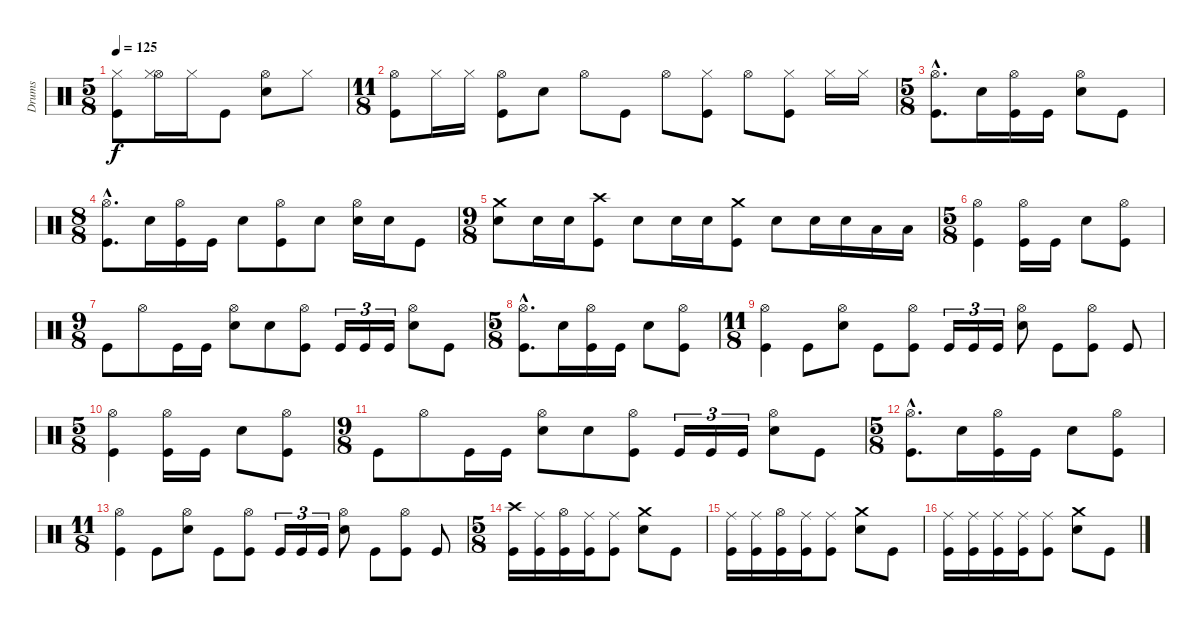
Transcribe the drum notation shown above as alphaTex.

\track ("Drums" "Drums") {instrument percussion}
\staff {score}
\articulation defaults
\ts (5 8)
\tempo 125
\clef neutral
\ks c
("Kick (hit)" "Hi-Hat (closed)").8{dy f} ("Hi-Hat (open)" "Hi-Hat (closed)").16 "Hi-Hat (closed)".16 "Kick (hit)".8 ("Snare (hit) 2" "Hi-Hat (open)").8 "Hi-Hat (closed)".8 |
\ts (11 8)
("Kick (hit)" "Hi-Hat (open)").8 "Hi-Hat (closed)".16 "Hi-Hat (closed)".16 ("Kick (hit)" "Hi-Hat (open)").8 "Snare (hit) 2".8 "Hi-Hat (open)".8 "Kick (hit)".8 "Hi-Hat (open)".8 ("Kick (hit)" "Hi-Hat (closed)").8 "Hi-Hat (open)".8 ("Kick (hit)" "Hi-Hat (closed)").8 "Hi-Hat (closed)".16 "Hi-Hat (closed)".16 |
\ts (5 8)
("Kick (hit)"{hac} "Hi-Hat (open)"{hac}).8{d} "Snare (hit) 2".16 ("Kick (hit)" "Hi-Hat (open)").16 "Kick (hit)".16 ("Snare (hit) 2" "Hi-Hat (open)").8 "Kick (hit)".8 |
\ts (8 8)
("Kick (hit)"{hac} "Hi-Hat (open)"{hac}).8{d} "Snare (hit) 2".16 ("Kick (hit)" "Hi-Hat (open)").16 "Kick (hit)".16 "Snare (hit) 2".8 ("Kick (hit)" "Hi-Hat (open)").8 "Snare (hit) 2".8 ("Snare (hit) 2" "Hi-Hat (open)").16 "Snare (hit) 2".16 "Kick (hit)".8 |
\ts (9 8)
("Snare (hit) 2" "Crash medium (hit)").8 "Snare (hit) 2".16 "Snare (hit) 2".16 ("Kick (hit)" "Crash high (hit)").8 "Snare (hit) 2".8 "Snare (hit) 2".16 "Snare (hit) 2".16 ("Kick (hit)" "Crash medium (hit)").8 "Snare (hit) 2".8 "Snare (hit) 2".16 "Snare (hit) 2".16 "Low Tom (hit)".16 "Low Tom (hit)".16 |
\ts (5 8)
("Kick (hit)" "Hi-Hat (open)").4 ("Kick (hit)" "Hi-Hat (open)").16 "Kick (hit)".16 "Snare (hit) 2".8 ("Kick (hit)" "Hi-Hat (open)").8 |
\ts (9 8)
"Kick (hit)".8 "Hi-Hat (open)".8 "Kick (hit)".16 "Kick (hit)".16 ("Snare (hit) 2" "Hi-Hat (open)").8 "Snare (hit) 2".8 ("Kick (hit)" "Hi-Hat (open)").8 "Kick (hit)".16{tu (3 2)} "Kick (hit)".16{tu (3 2)} "Kick (hit)".16{tu (3 2)} ("Snare (hit) 2" "Hi-Hat (open)").8 "Kick (hit)".8 |
\ts (5 8)
("Kick (hit)"{hac} "Hi-Hat (open)"{hac}).8{d} "Snare (hit) 2".16 ("Kick (hit)" "Hi-Hat (open)").16 "Kick (hit)".16 "Snare (hit) 2".8 ("Kick (hit)" "Hi-Hat (open)").8 |
\ts (11 8)
("Kick (hit)" "Hi-Hat (open)").4 "Kick (hit)".8 ("Snare (hit) 2" "Hi-Hat (open)").8 "Kick (hit)".8 ("Kick (hit)" "Hi-Hat (open)").8 "Kick (hit)".16{tu (3 2)} "Kick (hit)".16{tu (3 2)} "Kick (hit)".16{tu (3 2)} ("Snare (hit) 2" "Hi-Hat (open)").8 "Kick (hit)".8 ("Kick (hit)" "Hi-Hat (open)").8 "Kick (hit)".8 |
\ts (5 8)
("Kick (hit)" "Hi-Hat (open)").4 ("Kick (hit)" "Hi-Hat (open)").16 "Kick (hit)".16 "Snare (hit) 2".8 ("Kick (hit)" "Hi-Hat (open)").8 |
\ts (9 8)
"Kick (hit)".8 "Hi-Hat (open)".8 "Kick (hit)".16 "Kick (hit)".16 ("Snare (hit) 2" "Hi-Hat (open)").8 "Snare (hit) 2".8 ("Kick (hit)" "Hi-Hat (open)").8 "Kick (hit)".16{tu (3 2)} "Kick (hit)".16{tu (3 2)} "Kick (hit)".16{tu (3 2)} ("Snare (hit) 2" "Hi-Hat (open)").8 "Kick (hit)".8 |
\ts (5 8)
("Kick (hit)"{hac} "Hi-Hat (open)"{hac}).8{d} "Snare (hit) 2".16 ("Kick (hit)" "Hi-Hat (open)").16 "Kick (hit)".16 "Snare (hit) 2".8 ("Kick (hit)" "Hi-Hat (open)").8 |
\ts (11 8)
("Kick (hit)" "Hi-Hat (open)").4 "Kick (hit)".8 ("Snare (hit) 2" "Hi-Hat (open)").8 "Kick (hit)".8 ("Kick (hit)" "Hi-Hat (open)").8 "Kick (hit)".16{tu (3 2)} "Kick (hit)".16{tu (3 2)} "Kick (hit)".16{tu (3 2)} ("Snare (hit) 2" "Hi-Hat (open)").8 "Kick (hit)".8 ("Kick (hit)" "Hi-Hat (open)").8 "Kick (hit)".8 |
\ts (5 8)
("Kick (hit)" "Crash high (hit)").16 ("Kick (hit)" "Ride (middle)").16 ("Kick (hit)" "Hi-Hat (open)").16 ("Kick (hit)" "Ride (middle)").16 ("Kick (hit)" "Ride (middle)").8 ("Snare (hit) 2" "Crash medium (hit)").8 "Kick (hit)".8 |
("Kick (hit)" "Ride (middle)").16 ("Kick (hit)" "Ride (middle)").16 ("Kick (hit)" "Hi-Hat (open)").16 ("Kick (hit)" "Ride (middle)").16 ("Kick (hit)" "Ride (middle)").8 ("Snare (hit) 2" "Crash medium (hit)").8 "Kick (hit)".8 |
("Kick (hit)" "Ride (middle)").16 ("Kick (hit)" "Ride (middle)").16 ("Kick (hit)" "Ride (middle)").16 ("Kick (hit)" "Ride (middle)").16 ("Kick (hit)" "Ride (middle)").8 ("Snare (hit) 2" "Crash medium (hit)").8 "Kick (hit)".8
